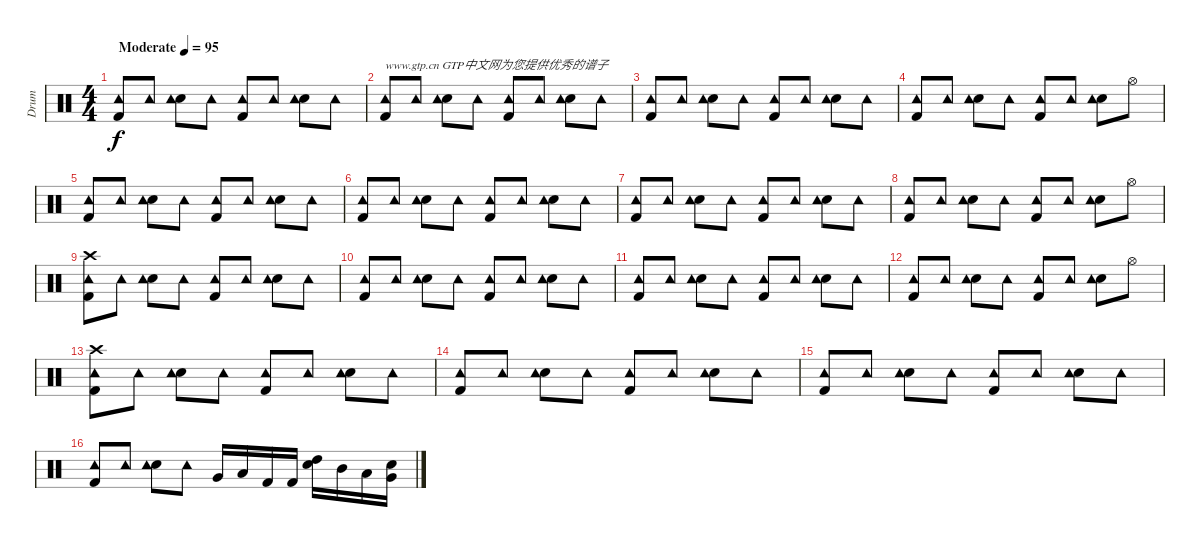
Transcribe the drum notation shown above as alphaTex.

\track ("Drum" "Drum") {instrument percussion}
\staff {score}
\articulation defaults
\ts (4 4)
\tempo (95 "Moderate")
\clef neutral
\ks c
("Kick (hit) 2" "Tambourine (hit)").8{dy f} "Tambourine (hit)".8 ("Electric Snare (hit)" "Tambourine (hit)").8 "Tambourine (hit)".8 ("Kick (hit) 2" "Tambourine (hit)").8 "Tambourine (hit)".8 ("Electric Snare (hit)" "Tambourine (hit)").8 "Tambourine (hit)".8 |
("Kick (hit) 2" "Tambourine (hit)").8{txt "www.gtp.cn GTP中文网为您提供优秀的谱子"} "Tambourine (hit)".8 ("Electric Snare (hit)" "Tambourine (hit)").8 "Tambourine (hit)".8 ("Kick (hit) 2" "Tambourine (hit)").8 "Tambourine (hit)".8 ("Electric Snare (hit)" "Tambourine (hit)").8 "Tambourine (hit)".8 |
("Kick (hit) 2" "Tambourine (hit)").8 "Tambourine (hit)".8 ("Electric Snare (hit)" "Tambourine (hit)").8 "Tambourine (hit)".8 ("Kick (hit) 2" "Tambourine (hit)").8 "Tambourine (hit)".8 ("Electric Snare (hit)" "Tambourine (hit)").8 "Tambourine (hit)".8 |
("Kick (hit) 2" "Tambourine (hit)").8 "Tambourine (hit)".8 ("Electric Snare (hit)" "Tambourine (hit)").8 "Tambourine (hit)".8 ("Kick (hit) 2" "Tambourine (hit)").8 "Tambourine (hit)".8 ("Electric Snare (hit)" "Tambourine (hit)").8 "Hi-Hat (open)".8 |
("Kick (hit) 2" "Tambourine (hit)").8 "Tambourine (hit)".8 ("Electric Snare (hit)" "Tambourine (hit)").8 "Tambourine (hit)".8 ("Kick (hit) 2" "Tambourine (hit)").8 "Tambourine (hit)".8 ("Electric Snare (hit)" "Tambourine (hit)").8 "Tambourine (hit)".8 |
("Kick (hit) 2" "Tambourine (hit)").8 "Tambourine (hit)".8 ("Electric Snare (hit)" "Tambourine (hit)").8 "Tambourine (hit)".8 ("Kick (hit) 2" "Tambourine (hit)").8 "Tambourine (hit)".8 ("Electric Snare (hit)" "Tambourine (hit)").8 "Tambourine (hit)".8 |
("Kick (hit) 2" "Tambourine (hit)").8 "Tambourine (hit)".8 ("Electric Snare (hit)" "Tambourine (hit)").8 "Tambourine (hit)".8 ("Kick (hit) 2" "Tambourine (hit)").8 "Tambourine (hit)".8 ("Electric Snare (hit)" "Tambourine (hit)").8 "Tambourine (hit)".8 |
("Kick (hit) 2" "Tambourine (hit)").8 "Tambourine (hit)".8 ("Electric Snare (hit)" "Tambourine (hit)").8 "Tambourine (hit)".8 ("Kick (hit) 2" "Tambourine (hit)").8 "Tambourine (hit)".8 ("Electric Snare (hit)" "Tambourine (hit)").8 "Hi-Hat (open)".8 |
("Kick (hit) 2" "Tambourine (hit)" "Crash high (hit)").8 "Tambourine (hit)".8 ("Electric Snare (hit)" "Tambourine (hit)").8 "Tambourine (hit)".8 ("Kick (hit) 2" "Tambourine (hit)").8 "Tambourine (hit)".8 ("Electric Snare (hit)" "Tambourine (hit)").8 "Tambourine (hit)".8 |
("Kick (hit) 2" "Tambourine (hit)").8 "Tambourine (hit)".8 ("Electric Snare (hit)" "Tambourine (hit)").8 "Tambourine (hit)".8 ("Kick (hit) 2" "Tambourine (hit)").8 "Tambourine (hit)".8 ("Electric Snare (hit)" "Tambourine (hit)").8 "Tambourine (hit)".8 |
("Kick (hit) 2" "Tambourine (hit)").8 "Tambourine (hit)".8 ("Electric Snare (hit)" "Tambourine (hit)").8 "Tambourine (hit)".8 ("Kick (hit) 2" "Tambourine (hit)").8 "Tambourine (hit)".8 ("Electric Snare (hit)" "Tambourine (hit)").8 "Tambourine (hit)".8 |
("Kick (hit) 2" "Tambourine (hit)").8 "Tambourine (hit)".8 ("Electric Snare (hit)" "Tambourine (hit)").8 "Tambourine (hit)".8 ("Kick (hit) 2" "Tambourine (hit)").8 "Tambourine (hit)".8 ("Electric Snare (hit)" "Tambourine (hit)").8 "Hi-Hat (open)".8 |
("Kick (hit) 2" "Tambourine (hit)" "Crash high (hit)").8 "Tambourine (hit)".8 ("Electric Snare (hit)" "Tambourine (hit)").8 "Tambourine (hit)".8 ("Kick (hit) 2" "Tambourine (hit)").8 "Tambourine (hit)".8 ("Electric Snare (hit)" "Tambourine (hit)").8 "Tambourine (hit)".8 |
("Kick (hit) 2" "Tambourine (hit)").8 "Tambourine (hit)".8 ("Electric Snare (hit)" "Tambourine (hit)").8 "Tambourine (hit)".8 ("Kick (hit) 2" "Tambourine (hit)").8 "Tambourine (hit)".8 ("Electric Snare (hit)" "Tambourine (hit)").8 "Tambourine (hit)".8 |
("Kick (hit) 2" "Tambourine (hit)").8 "Tambourine (hit)".8 ("Electric Snare (hit)" "Tambourine (hit)").8 "Tambourine (hit)".8 ("Kick (hit) 2" "Tambourine (hit)").8 "Tambourine (hit)".8 ("Electric Snare (hit)" "Tambourine (hit)").8 "Tambourine (hit)".8 |
("Kick (hit) 2" "Tambourine (hit)").8 "Tambourine (hit)".8 ("Electric Snare (hit)" "Tambourine (hit)").8 "Tambourine (hit)".8 "Very Low Tom (hit)".16 "Low Floor Tom (hit)".16 "Kick (hit) 2".16 "Kick (hit) 2".16 ("High Tom (hit)" "Snare (hit) 2").16 "Mid Tom (hit)".16 "Low Tom (hit)".16 ("Very Low Tom (hit)" "Snare (hit) 2").16
